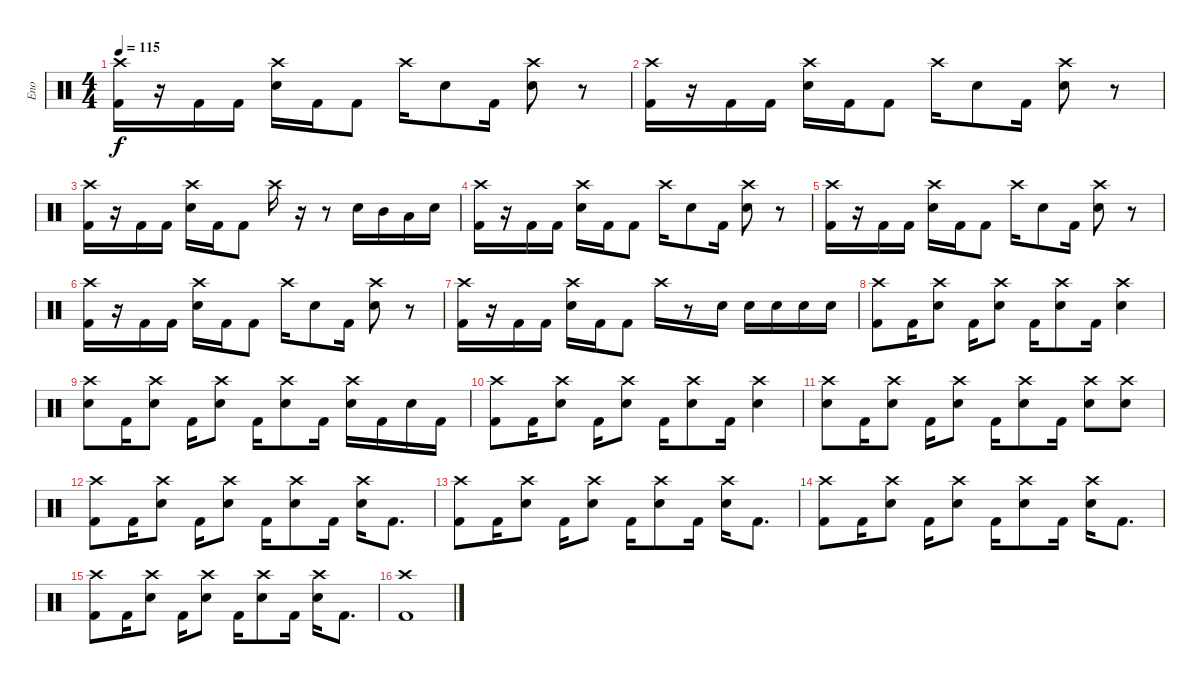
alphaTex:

\track ("Eno" "Eno") {instrument percussion}
\staff {score}
\articulation defaults
\ts (4 4)
\tempo 115
\clef neutral
\ks c
("Kick (hit) 2" "Crash high (hit)").16{dy f} r.16 "Kick (hit) 2".16 "Kick (hit) 2".16 ("Electric Snare (hit)" "Crash high (hit)").16 "Kick (hit) 2".16 "Kick (hit) 2".8 "Crash high (hit)".16 "Electric Snare (hit)".8 "Kick (hit) 2".16 ("Electric Snare (hit)" "Crash high (hit)").8 r.8 |
("Kick (hit) 2" "Crash high (hit)").16 r.16 "Kick (hit) 2".16 "Kick (hit) 2".16 ("Electric Snare (hit)" "Crash high (hit)").16 "Kick (hit) 2".16 "Kick (hit) 2".8 "Crash high (hit)".16 "Electric Snare (hit)".8 "Kick (hit) 2".16 ("Electric Snare (hit)" "Crash high (hit)").8 r.8 |
("Kick (hit) 2" "Crash high (hit)").16 r.16 "Kick (hit) 2".16 "Kick (hit) 2".16 ("Electric Snare (hit)" "Crash high (hit)").16 "Kick (hit) 2".16 "Kick (hit) 2".8 "Crash high (hit)".16 r.16 r.8 "Electric Snare (hit)".16 "Mid Tom (hit)".16 "Low Tom (hit)".16 "Electric Snare (hit)".16 |
("Kick (hit) 2" "Crash high (hit)").16 r.16 "Kick (hit) 2".16 "Kick (hit) 2".16 ("Electric Snare (hit)" "Crash high (hit)").16 "Kick (hit) 2".16 "Kick (hit) 2".8 "Crash high (hit)".16 "Electric Snare (hit)".8 "Kick (hit) 2".16 ("Electric Snare (hit)" "Crash high (hit)").8 r.8 |
("Kick (hit) 2" "Crash high (hit)").16 r.16 "Kick (hit) 2".16 "Kick (hit) 2".16 ("Electric Snare (hit)" "Crash high (hit)").16 "Kick (hit) 2".16 "Kick (hit) 2".8 "Crash high (hit)".16 "Electric Snare (hit)".8 "Kick (hit) 2".16 ("Electric Snare (hit)" "Crash high (hit)").8 r.8 |
("Kick (hit) 2" "Crash high (hit)").16 r.16 "Kick (hit) 2".16 "Kick (hit) 2".16 ("Electric Snare (hit)" "Crash high (hit)").16 "Kick (hit) 2".16 "Kick (hit) 2".8 "Crash high (hit)".16 "Electric Snare (hit)".8 "Kick (hit) 2".16 ("Electric Snare (hit)" "Crash high (hit)").8 r.8 |
("Kick (hit) 2" "Crash high (hit)").16 r.16 "Kick (hit) 2".16 "Kick (hit) 2".16 ("Electric Snare (hit)" "Crash high (hit)").16 "Kick (hit) 2".16 "Kick (hit) 2".8 "Crash high (hit)".16 r.8 "Electric Snare (hit)".16 "Electric Snare (hit)".16 "Electric Snare (hit)".16 "Electric Snare (hit)".16 "Electric Snare (hit)".16 |
("Kick (hit) 2" "Crash high (hit)").8 "Kick (hit) 2".16 ("Electric Snare (hit)" "Crash high (hit)").8 "Kick (hit) 2".16 ("Electric Snare (hit)" "Crash high (hit)").8 "Kick (hit) 2".16 ("Electric Snare (hit)" "Crash high (hit)").8 "Kick (hit) 2".16 ("Electric Snare (hit)" "Crash high (hit)").4 |
("Electric Snare (hit)" "Crash high (hit)").8 "Kick (hit) 2".16 ("Electric Snare (hit)" "Crash high (hit)").8 "Kick (hit) 2".16 ("Electric Snare (hit)" "Crash high (hit)").8 "Kick (hit) 2".16 ("Electric Snare (hit)" "Crash high (hit)").8 "Kick (hit) 2".16 ("Electric Snare (hit)" "Crash high (hit)").16 "Kick (hit) 2".16 "Electric Snare (hit)".16 "Kick (hit) 2".16 |
("Kick (hit) 2" "Crash high (hit)").8 "Kick (hit) 2".16 ("Electric Snare (hit)" "Crash high (hit)").8 "Kick (hit) 2".16 ("Electric Snare (hit)" "Crash high (hit)").8 "Kick (hit) 2".16 ("Electric Snare (hit)" "Crash high (hit)").8 "Kick (hit) 2".16 ("Electric Snare (hit)" "Crash high (hit)").4 |
("Electric Snare (hit)" "Crash high (hit)").8 "Kick (hit) 2".16 ("Electric Snare (hit)" "Crash high (hit)").8 "Kick (hit) 2".16 ("Electric Snare (hit)" "Crash high (hit)").8 "Kick (hit) 2".16 ("Electric Snare (hit)" "Crash high (hit)").8 "Kick (hit) 2".16 ("Electric Snare (hit)" "Crash high (hit)").8 ("Electric Snare (hit)" "Crash high (hit)").8 |
("Kick (hit) 2" "Crash high (hit)").8 "Kick (hit) 2".16 ("Electric Snare (hit)" "Crash high (hit)").8 "Kick (hit) 2".16 ("Electric Snare (hit)" "Crash high (hit)").8 "Kick (hit) 2".16 ("Electric Snare (hit)" "Crash high (hit)").8 "Kick (hit) 2".16 ("Electric Snare (hit)" "Crash high (hit)").16 "Kick (hit) 2".8{d} |
("Kick (hit) 2" "Crash high (hit)").8 "Kick (hit) 2".16 ("Electric Snare (hit)" "Crash high (hit)").8 "Kick (hit) 2".16 ("Electric Snare (hit)" "Crash high (hit)").8 "Kick (hit) 2".16 ("Electric Snare (hit)" "Crash high (hit)").8 "Kick (hit) 2".16 ("Electric Snare (hit)" "Crash high (hit)").16 "Kick (hit) 2".8{d} |
("Kick (hit) 2" "Crash high (hit)").8 "Kick (hit) 2".16 ("Electric Snare (hit)" "Crash high (hit)").8 "Kick (hit) 2".16 ("Electric Snare (hit)" "Crash high (hit)").8 "Kick (hit) 2".16 ("Electric Snare (hit)" "Crash high (hit)").8 "Kick (hit) 2".16 ("Electric Snare (hit)" "Crash high (hit)").16 "Kick (hit) 2".8{d} |
("Kick (hit) 2" "Crash high (hit)").8 "Kick (hit) 2".16 ("Electric Snare (hit)" "Crash high (hit)").8 "Kick (hit) 2".16 ("Electric Snare (hit)" "Crash high (hit)").8 "Kick (hit) 2".16 ("Electric Snare (hit)" "Crash high (hit)").8 "Kick (hit) 2".16 ("Electric Snare (hit)" "Crash high (hit)").16 "Kick (hit) 2".8{d} |
("Crash high (hit)" "Kick (hit) 2").1
